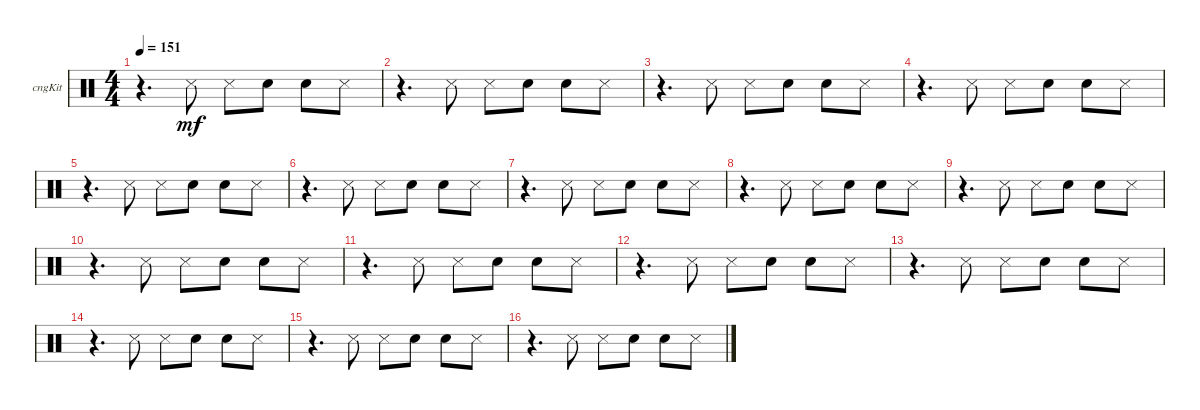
\bracketExtendMode groupsimilarinstruments
\firstSystemTrackNameOrientation horizontal
\otherSystemsTrackNameOrientation horizontal
\track ("Congas" "cngKit") {instrument percussion}
\staff {score}
\articulation defaults
\ts (4 4)
\tempo 151
\clef neutral
\ks aminor
r.4{d dy mf} "Snare (side stick) 3".8 "Snare (side stick) 3".8 "Snare (hit) 2".8 "Snare (hit) 2".8 "Snare (side stick) 3".8 |
r.4{d} "Snare (side stick) 3".8 "Snare (side stick) 3".8 "Snare (hit) 2".8 "Snare (hit) 2".8 "Snare (side stick) 3".8 |
r.4{d} "Snare (side stick) 3".8 "Snare (side stick) 3".8 "Snare (hit) 2".8 "Snare (hit) 2".8 "Snare (side stick) 3".8 |
r.4{d} "Snare (side stick) 3".8 "Snare (side stick) 3".8 "Snare (hit) 2".8 "Snare (hit) 2".8 "Snare (side stick) 3".8 |
r.4{d} "Snare (side stick) 3".8 "Snare (side stick) 3".8 "Snare (hit) 2".8 "Snare (hit) 2".8 "Snare (side stick) 3".8 |
r.4{d} "Snare (side stick) 3".8 "Snare (side stick) 3".8 "Snare (hit) 2".8 "Snare (hit) 2".8 "Snare (side stick) 3".8 |
r.4{d} "Snare (side stick) 3".8 "Snare (side stick) 3".8 "Snare (hit) 2".8 "Snare (hit) 2".8 "Snare (side stick) 3".8 |
r.4{d} "Snare (side stick) 3".8 "Snare (side stick) 3".8 "Snare (hit) 2".8 "Snare (hit) 2".8 "Snare (side stick) 3".8 |
r.4{d} "Snare (side stick) 3".8 "Snare (side stick) 3".8 "Snare (hit) 2".8 "Snare (hit) 2".8 "Snare (side stick) 3".8 |
r.4{d} "Snare (side stick) 3".8 "Snare (side stick) 3".8 "Snare (hit) 2".8 "Snare (hit) 2".8 "Snare (side stick) 3".8 |
r.4{d} "Snare (side stick) 3".8 "Snare (side stick) 3".8 "Snare (hit) 2".8 "Snare (hit) 2".8 "Snare (side stick) 3".8 |
r.4{d} "Snare (side stick) 3".8 "Snare (side stick) 3".8 "Snare (hit) 2".8 "Snare (hit) 2".8 "Snare (side stick) 3".8 |
r.4{d} "Snare (side stick) 3".8 "Snare (side stick) 3".8 "Snare (hit) 2".8 "Snare (hit) 2".8 "Snare (side stick) 3".8 |
r.4{d} "Snare (side stick) 3".8 "Snare (side stick) 3".8 "Snare (hit) 2".8 "Snare (hit) 2".8 "Snare (side stick) 3".8 |
r.4{d} "Snare (side stick) 3".8 "Snare (side stick) 3".8 "Snare (hit) 2".8 "Snare (hit) 2".8 "Snare (side stick) 3".8 |
r.4{d} "Snare (side stick) 3".8 "Snare (side stick) 3".8 "Snare (hit) 2".8 "Snare (hit) 2".8 "Snare (side stick) 3".8
